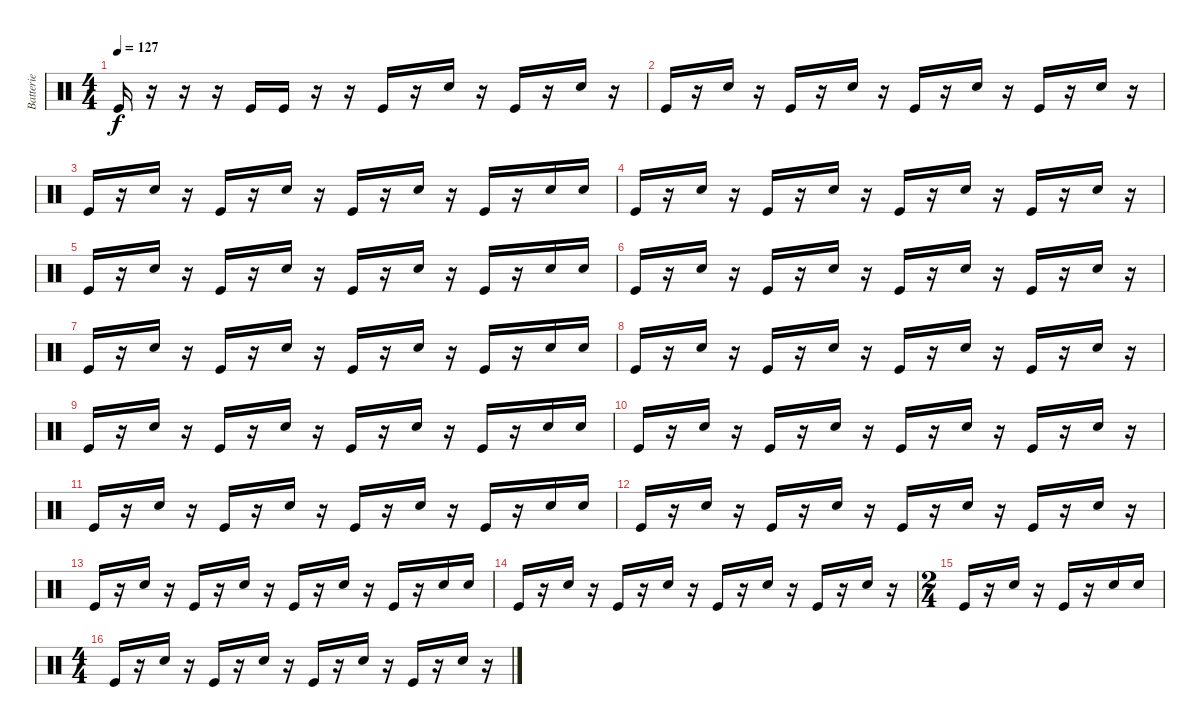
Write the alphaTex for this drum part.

\track ("Batterie" "Batterie") {instrument percussion}
\staff {score}
\articulation defaults
\ts (4 4)
\tempo 127
\clef neutral
\ks c "Kick (hit)".16{dy f}
r.16 r.16 r.16 "Kick (hit)".16 "Kick (hit)".16 r.16 r.16 "Kick (hit)".16 r.16 "Snare (hit) 2".16 r.16 "Kick (hit)".16 r.16 "Snare (hit) 2".16 r.16 |
"Kick (hit)".16 r.16 "Snare (hit) 2".16 r.16 "Kick (hit)".16 r.16 "Snare (hit) 2".16 r.16 "Kick (hit)".16 r.16 "Snare (hit) 2".16 r.16 "Kick (hit)".16 r.16 "Snare (hit) 2".16 r.16 |
"Kick (hit)".16 r.16 "Snare (hit) 2".16 r.16 "Kick (hit)".16 r.16 "Snare (hit) 2".16 r.16 "Kick (hit)".16 r.16 "Snare (hit) 2".16 r.16 "Kick (hit)".16 r.16 "Snare (hit) 2".16 "Snare (hit) 2".16 |
"Kick (hit)".16 r.16 "Snare (hit) 2".16 r.16 "Kick (hit)".16 r.16 "Snare (hit) 2".16 r.16 "Kick (hit)".16 r.16 "Snare (hit) 2".16 r.16 "Kick (hit)".16 r.16 "Snare (hit) 2".16 r.16 |
"Kick (hit)".16 r.16 "Snare (hit) 2".16 r.16 "Kick (hit)".16 r.16 "Snare (hit) 2".16 r.16 "Kick (hit)".16 r.16 "Snare (hit) 2".16 r.16 "Kick (hit)".16 r.16 "Snare (hit) 2".16 "Snare (hit) 2".16 |
"Kick (hit)".16 r.16 "Snare (hit) 2".16 r.16 "Kick (hit)".16 r.16 "Snare (hit) 2".16 r.16 "Kick (hit)".16 r.16 "Snare (hit) 2".16 r.16 "Kick (hit)".16 r.16 "Snare (hit) 2".16 r.16 |
"Kick (hit)".16 r.16 "Snare (hit) 2".16 r.16 "Kick (hit)".16 r.16 "Snare (hit) 2".16 r.16 "Kick (hit)".16 r.16 "Snare (hit) 2".16 r.16 "Kick (hit)".16 r.16 "Snare (hit) 2".16 "Snare (hit) 2".16 |
"Kick (hit)".16 r.16 "Snare (hit) 2".16 r.16 "Kick (hit)".16 r.16 "Snare (hit) 2".16 r.16 "Kick (hit)".16 r.16 "Snare (hit) 2".16 r.16 "Kick (hit)".16 r.16 "Snare (hit) 2".16 r.16 |
"Kick (hit)".16 r.16 "Snare (hit) 2".16 r.16 "Kick (hit)".16 r.16 "Snare (hit) 2".16 r.16 "Kick (hit)".16 r.16 "Snare (hit) 2".16 r.16 "Kick (hit)".16 r.16 "Snare (hit) 2".16 "Snare (hit) 2".16 |
"Kick (hit)".16 r.16 "Snare (hit) 2".16 r.16 "Kick (hit)".16 r.16 "Snare (hit) 2".16 r.16 "Kick (hit)".16 r.16 "Snare (hit) 2".16 r.16 "Kick (hit)".16 r.16 "Snare (hit) 2".16 r.16 |
"Kick (hit)".16 r.16 "Snare (hit) 2".16 r.16 "Kick (hit)".16 r.16 "Snare (hit) 2".16 r.16 "Kick (hit)".16 r.16 "Snare (hit) 2".16 r.16 "Kick (hit)".16 r.16 "Snare (hit) 2".16 "Snare (hit) 2".16 |
"Kick (hit)".16 r.16 "Snare (hit) 2".16 r.16 "Kick (hit)".16 r.16 "Snare (hit) 2".16 r.16 "Kick (hit)".16 r.16 "Snare (hit) 2".16 r.16 "Kick (hit)".16 r.16 "Snare (hit) 2".16 r.16 |
"Kick (hit)".16 r.16 "Snare (hit) 2".16 r.16 "Kick (hit)".16 r.16 "Snare (hit) 2".16 r.16 "Kick (hit)".16 r.16 "Snare (hit) 2".16 r.16 "Kick (hit)".16 r.16 "Snare (hit) 2".16 "Snare (hit) 2".16 |
"Kick (hit)".16 r.16 "Snare (hit) 2".16 r.16 "Kick (hit)".16 r.16 "Snare (hit) 2".16 r.16 "Kick (hit)".16 r.16 "Snare (hit) 2".16 r.16 "Kick (hit)".16 r.16 "Snare (hit) 2".16 r.16 |
\ts (2 4)
"Kick (hit)".16 r.16 "Snare (hit) 2".16 r.16 "Kick (hit)".16 r.16 "Snare (hit) 2".16 "Snare (hit) 2".16 |
\ts (4 4)
"Kick (hit)".16 r.16 "Snare (hit) 2".16 r.16 "Kick (hit)".16 r.16 "Snare (hit) 2".16 r.16 "Kick (hit)".16 r.16 "Snare (hit) 2".16 r.16 "Kick (hit)".16 r.16 "Snare (hit) 2".16 r.16
